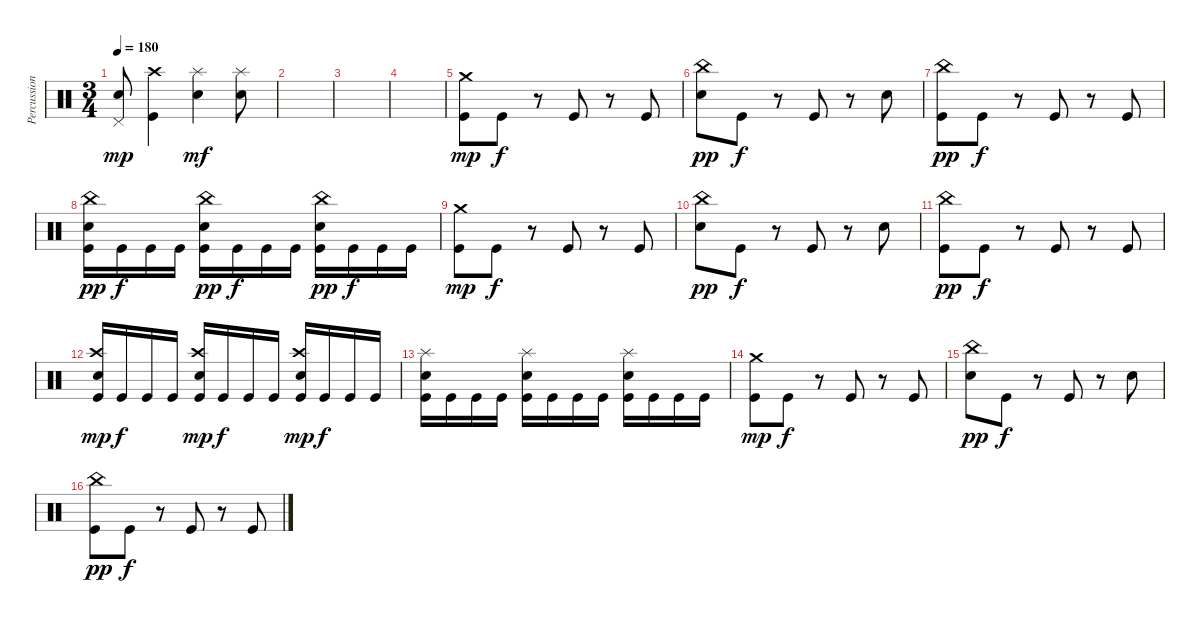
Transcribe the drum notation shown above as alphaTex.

\track ("Percussion" "Percussion") {instrument percussion}
\staff {score}
\articulation defaults
\ts (3 4)
\tempo 180
\clef neutral
\ks c
("Pedal Hi-Hat (hit)" "Electric Snare (hit)").8{dy mp} ("Crash high (hit)" "Kick (hit)").4 ("Splash (hit)" "Electric Snare (hit)").4{dy mf} ("Splash (hit)" "Electric Snare (hit)").8 |
|
|
|
("Crash medium (hit)" "Kick (hit)").8{dy mp} "Kick (hit)".8{dy f} r.8 "Kick (hit)".8 r.8 "Kick (hit)".8 |
("China (hit)" "Electric Snare (hit)").8{dy pp} "Kick (hit)".8{dy f} r.8 "Kick (hit)".8 r.8 "Electric Snare (hit)".8 |
("China (hit)" "Kick (hit)").8{dy pp} "Kick (hit)".8{dy f} r.8 "Kick (hit)".8 r.8 "Kick (hit)".8 |
("China (hit)" "Electric Snare (hit)" "Kick (hit)").16{dy pp} "Kick (hit)".16{dy f} "Kick (hit)".16 "Kick (hit)".16 ("China (hit)" "Electric Snare (hit)" "Kick (hit)").16{dy pp} "Kick (hit)".16{dy f} "Kick (hit)".16 "Kick (hit)".16 ("China (hit)" "Electric Snare (hit)" "Kick (hit)").16{dy pp} "Kick (hit)".16{dy f} "Kick (hit)".16 "Kick (hit)".16 |
("Crash medium (hit)" "Kick (hit)").8{dy mp} "Kick (hit)".8{dy f} r.8 "Kick (hit)".8 r.8 "Kick (hit)".8 |
("China (hit)" "Electric Snare (hit)").8{dy pp} "Kick (hit)".8{dy f} r.8 "Kick (hit)".8 r.8 "Electric Snare (hit)".8 |
("China (hit)" "Kick (hit)").8{dy pp} "Kick (hit)".8{dy f} r.8 "Kick (hit)".8 r.8 "Kick (hit)".8 |
("Crash high (hit)" "Electric Snare (hit)" "Kick (hit)").16{dy mp} "Kick (hit)".16{dy f} "Kick (hit)".16 "Kick (hit)".16 ("Crash high (hit)" "Electric Snare (hit)" "Kick (hit)").16{dy mp} "Kick (hit)".16{dy f} "Kick (hit)".16 "Kick (hit)".16 ("Crash high (hit)" "Electric Snare (hit)" "Kick (hit)").16{dy mp} "Kick (hit)".16{dy f} "Kick (hit)".16 "Kick (hit)".16 |
("Splash (hit)" "Electric Snare (hit)" "Kick (hit)").16 "Kick (hit)".16 "Kick (hit)".16 "Kick (hit)".16 ("Splash (hit)" "Electric Snare (hit)" "Kick (hit)").16 "Kick (hit)".16 "Kick (hit)".16 "Kick (hit)".16 ("Splash (hit)" "Electric Snare (hit)" "Kick (hit)").16 "Kick (hit)".16 "Kick (hit)".16 "Kick (hit)".16 |
("Crash medium (hit)" "Kick (hit)").8{dy mp} "Kick (hit)".8{dy f} r.8 "Kick (hit)".8 r.8 "Kick (hit)".8 |
("China (hit)" "Electric Snare (hit)").8{dy pp} "Kick (hit)".8{dy f} r.8 "Kick (hit)".8 r.8 "Electric Snare (hit)".8 |
("China (hit)" "Kick (hit)").8{dy pp} "Kick (hit)".8{dy f} r.8 "Kick (hit)".8 r.8 "Kick (hit)".8
